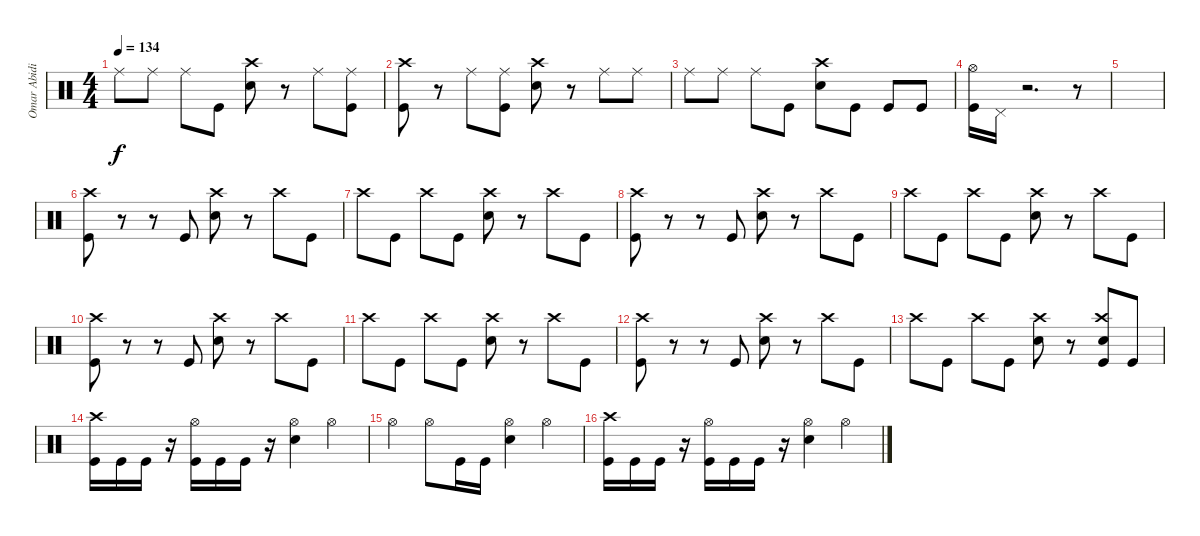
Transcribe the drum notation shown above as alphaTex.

\track ("Omar Abidi" "Omar Abidi") {instrument percussion}
\staff {score}
\articulation defaults
\ts (4 4)
\tempo 134
\clef neutral
\ks c "Ride (middle)".8{dy f} "Ride (middle)".8 "Ride (middle)".8 "Kick (hit)".8
("Crash high (hit)" "Snare (hit) 2").8 r.8 "Ride (middle)".8 ("Ride (middle)" "Kick (hit)").8 |
("Crash high (hit)" "Kick (hit)").8 r.8 "Ride (middle)".8 ("Ride (middle)" "Kick (hit)").8 ("Crash high (hit)" "Snare (hit) 2").8 r.8 "Ride (middle)".8 "Ride (middle)".8 |
"Ride (middle)".8 "Ride (middle)".8 "Ride (middle)".8 "Kick (hit)".8 ("Crash high (hit)" "Snare (hit) 2").8 "Kick (hit)".8 "Kick (hit)".8 "Kick (hit)".8 |
("Hi-Hat (open)" "Kick (hit)").16 "Pedal Hi-Hat (hit)".16 r.2{d} r.8 |
|
("Crash high (hit)" "Kick (hit)").8 r.8 r.8 "Kick (hit)".8 ("Crash high (hit)" "Snare (hit) 2").8 r.8 "Crash high (hit)".8 "Kick (hit)".8 |
"Crash high (hit)".8 "Kick (hit)".8 "Crash high (hit)".8 "Kick (hit)".8 ("Crash high (hit)" "Snare (hit) 2").8 r.8 "Crash high (hit)".8 "Kick (hit)".8 |
("Crash high (hit)" "Kick (hit)").8 r.8 r.8 "Kick (hit)".8 ("Crash high (hit)" "Snare (hit) 2").8 r.8 "Crash high (hit)".8 "Kick (hit)".8 |
"Crash high (hit)".8 "Kick (hit)".8 "Crash high (hit)".8 "Kick (hit)".8 ("Crash high (hit)" "Snare (hit) 2").8 r.8 "Crash high (hit)".8 "Kick (hit)".8 |
("Crash high (hit)" "Kick (hit)").8 r.8 r.8 "Kick (hit)".8 ("Crash high (hit)" "Snare (hit) 2").8 r.8 "Crash high (hit)".8 "Kick (hit)".8 |
"Crash high (hit)".8 "Kick (hit)".8 "Crash high (hit)".8 "Kick (hit)".8 ("Crash high (hit)" "Snare (hit) 2").8 r.8 "Crash high (hit)".8 "Kick (hit)".8 |
("Crash high (hit)" "Kick (hit)").8 r.8 r.8 "Kick (hit)".8 ("Crash high (hit)" "Snare (hit) 2").8 r.8 "Crash high (hit)".8 "Kick (hit)".8 |
"Crash high (hit)".8 "Kick (hit)".8 "Crash high (hit)".8 "Kick (hit)".8 ("Crash high (hit)" "Snare (hit) 2").8 r.8 ("Crash high (hit)" "Snare (hit) 2" "Kick (hit)").8 "Kick (hit)".8 |
("Crash high (hit)" "Kick (hit)").16 "Kick (hit)".16 "Kick (hit)".16 r.16 ("Hi-Hat (open)" "Kick (hit)").16 "Kick (hit)".16 "Kick (hit)".16 r.16 ("Hi-Hat (open)" "Snare (hit) 2").4 "Hi-Hat (open)".4 |
"Hi-Hat (open)".4 "Hi-Hat (open)".8 "Kick (hit)".16 "Kick (hit)".16 ("Hi-Hat (open)" "Snare (hit) 2").4 "Hi-Hat (open)".4 |
("Crash high (hit)" "Kick (hit)").16 "Kick (hit)".16 "Kick (hit)".16 r.16 ("Hi-Hat (open)" "Kick (hit)").16 "Kick (hit)".16 "Kick (hit)".16 r.16 ("Hi-Hat (open)" "Snare (hit) 2").4 "Hi-Hat (open)".4
